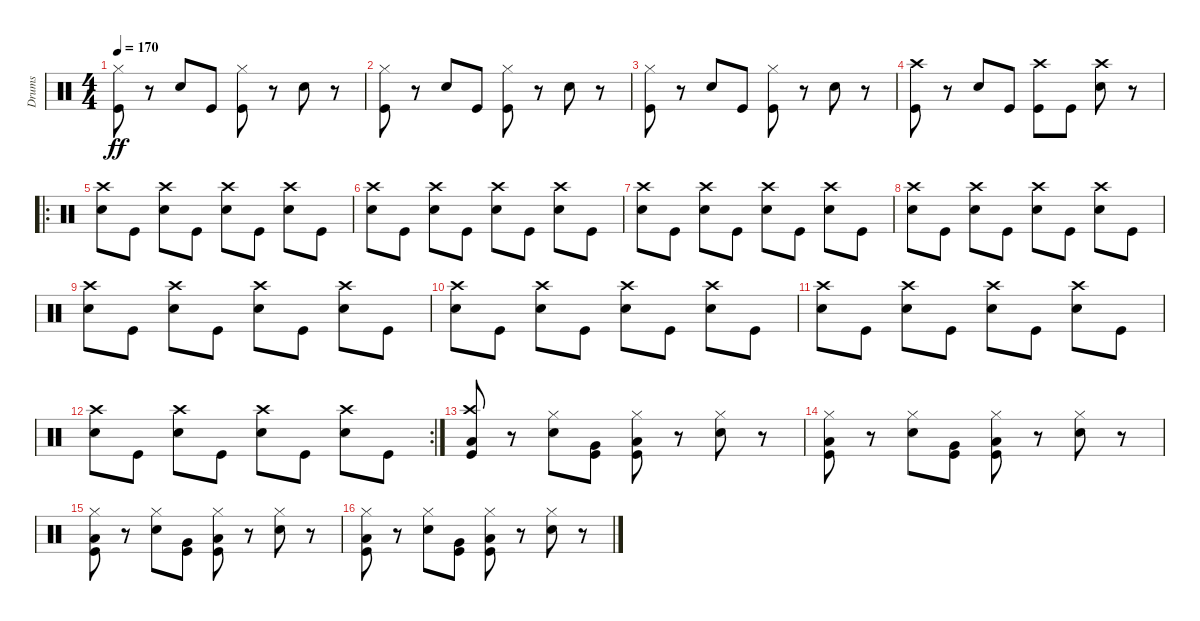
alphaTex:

\track ("Drums" "Drums") {instrument percussion}
\staff {score}
\articulation defaults
\ts (4 4)
\tempo 170
\clef neutral
\ks c
("Hi-Hat (closed)" "Kick (hit)").8{dy ff} r.8 "Snare (hit) 2".8 "Kick (hit)".8 ("Hi-Hat (closed)" "Kick (hit)").8 r.8 "Snare (hit) 2".8 r.8 |
("Hi-Hat (closed)" "Kick (hit)").8 r.8 "Snare (hit) 2".8 "Kick (hit)".8 ("Hi-Hat (closed)" "Kick (hit)").8 r.8 "Snare (hit) 2".8 r.8 |
("Hi-Hat (closed)" "Kick (hit)").8 r.8 "Snare (hit) 2".8 "Kick (hit)".8 ("Hi-Hat (closed)" "Kick (hit)").8 r.8 "Snare (hit) 2".8 r.8 |
("Crash high (hit)" "Kick (hit)").8 r.8 "Snare (hit) 2".8 "Kick (hit)".8 ("Crash high (hit)" "Kick (hit)").8 "Kick (hit)".8 ("Crash high (hit)" "Snare (hit) 2").8 r.8 |
\ro
("Crash high (hit)" "Snare (hit) 2").8 "Kick (hit)".8 ("Crash high (hit)" "Snare (hit) 2").8 "Kick (hit)".8 ("Crash high (hit)" "Snare (hit) 2").8 "Kick (hit)".8 ("Crash high (hit)" "Snare (hit) 2").8 "Kick (hit)".8 |
("Crash high (hit)" "Snare (hit) 2").8 "Kick (hit)".8 ("Crash high (hit)" "Snare (hit) 2").8 "Kick (hit)".8 ("Crash high (hit)" "Snare (hit) 2").8 "Kick (hit)".8 ("Crash high (hit)" "Snare (hit) 2").8 "Kick (hit)".8 |
("Crash high (hit)" "Snare (hit) 2").8 "Kick (hit)".8 ("Crash high (hit)" "Snare (hit) 2").8 "Kick (hit)".8 ("Crash high (hit)" "Snare (hit) 2").8 "Kick (hit)".8 ("Crash high (hit)" "Snare (hit) 2").8 "Kick (hit)".8 |
("Crash high (hit)" "Snare (hit) 2").8 "Kick (hit)".8 ("Crash high (hit)" "Snare (hit) 2").8 "Kick (hit)".8 ("Crash high (hit)" "Snare (hit) 2").8 "Kick (hit)".8 ("Crash high (hit)" "Snare (hit) 2").8 "Kick (hit)".8 |
("Crash high (hit)" "Snare (hit) 2").8 "Kick (hit)".8 ("Crash high (hit)" "Snare (hit) 2").8 "Kick (hit)".8 ("Crash high (hit)" "Snare (hit) 2").8 "Kick (hit)".8 ("Crash high (hit)" "Snare (hit) 2").8 "Kick (hit)".8 |
("Crash high (hit)" "Snare (hit) 2").8 "Kick (hit)".8 ("Crash high (hit)" "Snare (hit) 2").8 "Kick (hit)".8 ("Crash high (hit)" "Snare (hit) 2").8 "Kick (hit)".8 ("Crash high (hit)" "Snare (hit) 2").8 "Kick (hit)".8 |
("Crash high (hit)" "Snare (hit) 2").8 "Kick (hit)".8 ("Crash high (hit)" "Snare (hit) 2").8 "Kick (hit)".8 ("Crash high (hit)" "Snare (hit) 2").8 "Kick (hit)".8 ("Crash high (hit)" "Snare (hit) 2").8 "Kick (hit)".8 |
\rc 2
("Crash high (hit)" "Snare (hit) 2").8 "Kick (hit)".8 ("Crash high (hit)" "Snare (hit) 2").8 "Kick (hit)".8 ("Crash high (hit)" "Snare (hit) 2").8 "Kick (hit)".8 ("Crash high (hit)" "Snare (hit) 2").8 "Kick (hit)".8 |
("Crash high (hit)" "Low Floor Tom (hit)" "Kick (hit)").8 r.8 ("Hi-Hat (closed)" "Snare (hit) 2").8 ("Very Low Tom (hit)" "Kick (hit)").8 ("Hi-Hat (closed)" "Low Floor Tom (hit)" "Kick (hit)").8 r.8 ("Hi-Hat (closed)" "Snare (hit) 2").8 r.8 |
("Hi-Hat (closed)" "Low Floor Tom (hit)" "Kick (hit)").8 r.8 ("Hi-Hat (closed)" "Snare (hit) 2").8 ("Very Low Tom (hit)" "Kick (hit)").8 ("Hi-Hat (closed)" "Low Floor Tom (hit)" "Kick (hit)").8 r.8 ("Hi-Hat (closed)" "Snare (hit) 2").8 r.8 |
("Hi-Hat (closed)" "Low Floor Tom (hit)" "Kick (hit)").8 r.8 ("Hi-Hat (closed)" "Snare (hit) 2").8 ("Very Low Tom (hit)" "Kick (hit)").8 ("Hi-Hat (closed)" "Low Floor Tom (hit)" "Kick (hit)").8 r.8 ("Hi-Hat (closed)" "Snare (hit) 2").8 r.8 |
("Hi-Hat (closed)" "Low Floor Tom (hit)" "Kick (hit)").8 r.8 ("Hi-Hat (closed)" "Snare (hit) 2").8 ("Very Low Tom (hit)" "Kick (hit)").8 ("Hi-Hat (closed)" "Low Floor Tom (hit)" "Kick (hit)").8 r.8 ("Hi-Hat (closed)" "Snare (hit) 2").8 r.8
